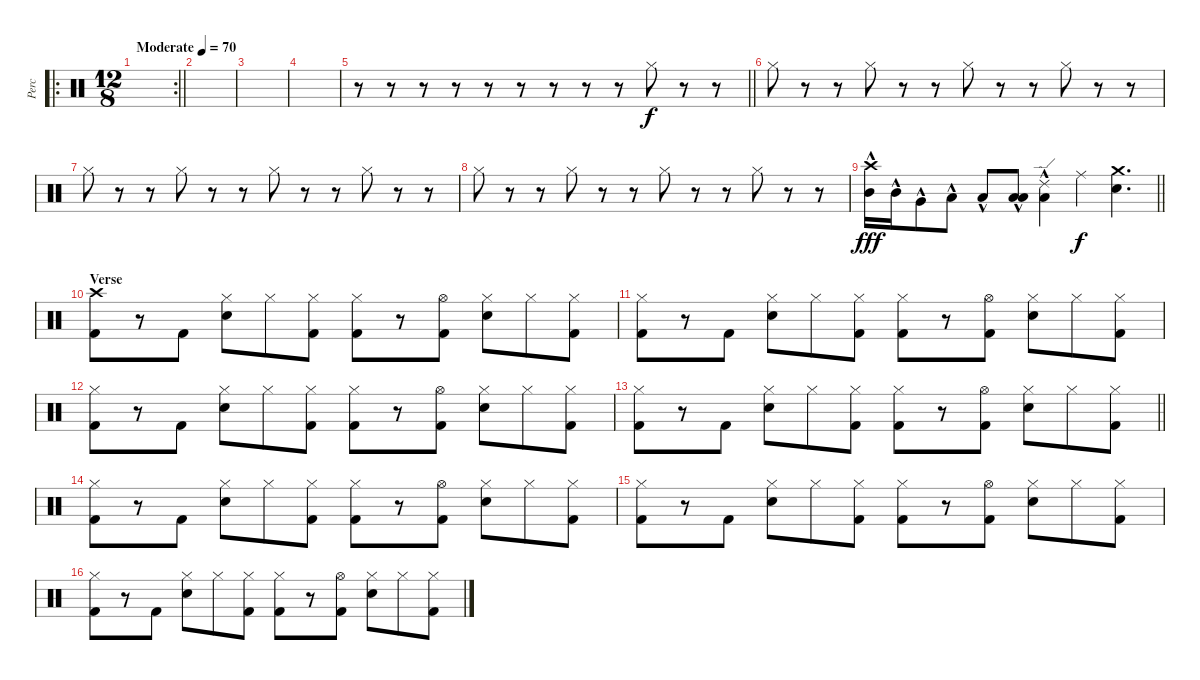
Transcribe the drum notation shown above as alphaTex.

\track ("Perc" "Perc") {instrument percussion}
\staff {score}
\articulation defaults
\ro
\rc 2
\ts (12 8)
\tempo (70 "Moderate")
\clef neutral
\barLineRight lightlight
\ks c
|
|
|
|
\barLineRight lightlight
r.8 r.8 r.8 r.8 r.8 r.8 r.8 r.8 r.8 "Hi-Hat (closed)".8 r.8 r.8 |
"Hi-Hat (closed)".8 r.8 r.8 "Hi-Hat (closed)".8 r.8 r.8 "Hi-Hat (closed)".8 r.8 r.8 "Hi-Hat (closed)".8 r.8 r.8 |
"Hi-Hat (closed)".8 r.8 r.8 "Hi-Hat (closed)".8 r.8 r.8 "Hi-Hat (closed)".8 r.8 r.8 "Hi-Hat (closed)".8 r.8 r.8 |
"Hi-Hat (closed)".8 r.8 r.8 "Hi-Hat (closed)".8 r.8 r.8 "Hi-Hat (closed)".8 r.8 r.8 "Hi-Hat (closed)".8 r.8 r.8 |
\barLineRight lightlight
("Mid Tom (hit)"{hac} "Crash high (hit)").16{dy fff} "Mid Tom (hit)"{hac}.16 "Very Low Tom (hit)"{hac}.8 "Low Floor Tom (hit)"{hac}.8 "Low Floor Tom (hit)"{hac}.8 ("Low Floor Tom (hit)"{hac} "Low Floor Tom (hit)").8 ("Low Floor Tom (hit)"{hac} "Ride (edge) 2").4 "Ride (middle)".4{dy f} ("Electric Snare (hit)" "Crash medium (hit)").4{d} |
\section ("" "Verse")
("Crash high (hit)" "Kick (hit) 2").8 r.8 "Kick (hit) 2".8 ("Hi-Hat (closed)" "Electric Snare (hit)").8 "Hi-Hat (closed)".8 ("Hi-Hat (closed)" "Kick (hit) 2").8 ("Hi-Hat (closed)" "Kick (hit) 2").8 r.8 ("Hi-Hat (open)" "Kick (hit) 2").8 ("Hi-Hat (closed)" "Electric Snare (hit)").8 "Hi-Hat (closed)".8 ("Hi-Hat (closed)" "Kick (hit) 2").8 |
("Kick (hit) 2" "Hi-Hat (closed)").8 r.8 "Kick (hit) 2".8 ("Hi-Hat (closed)" "Electric Snare (hit)").8 "Hi-Hat (closed)".8 ("Hi-Hat (closed)" "Kick (hit) 2").8 ("Hi-Hat (closed)" "Kick (hit) 2").8 r.8 ("Hi-Hat (open)" "Kick (hit) 2").8 ("Hi-Hat (closed)" "Electric Snare (hit)").8 "Hi-Hat (closed)".8 ("Hi-Hat (closed)" "Kick (hit) 2").8 |
("Kick (hit) 2" "Hi-Hat (closed)").8 r.8 "Kick (hit) 2".8 ("Hi-Hat (closed)" "Electric Snare (hit)").8 "Hi-Hat (closed)".8 ("Hi-Hat (closed)" "Kick (hit) 2").8 ("Hi-Hat (closed)" "Kick (hit) 2").8 r.8 ("Hi-Hat (open)" "Kick (hit) 2").8 ("Hi-Hat (closed)" "Electric Snare (hit)").8 "Hi-Hat (closed)".8 ("Hi-Hat (closed)" "Kick (hit) 2").8 |
\barLineRight lightlight
("Kick (hit) 2" "Hi-Hat (closed)").8 r.8 "Kick (hit) 2".8 ("Hi-Hat (closed)" "Electric Snare (hit)").8 "Hi-Hat (closed)".8 ("Hi-Hat (closed)" "Kick (hit) 2").8 ("Hi-Hat (closed)" "Kick (hit) 2").8 r.8 ("Hi-Hat (open)" "Kick (hit) 2").8 ("Hi-Hat (closed)" "Electric Snare (hit)").8 "Hi-Hat (closed)".8 ("Hi-Hat (closed)" "Kick (hit) 2").8 |
\section ("" "")
("Kick (hit) 2" "Hi-Hat (closed)").8 r.8 "Kick (hit) 2".8 ("Hi-Hat (closed)" "Electric Snare (hit)").8 "Hi-Hat (closed)".8 ("Hi-Hat (closed)" "Kick (hit) 2").8 ("Hi-Hat (closed)" "Kick (hit) 2").8 r.8 ("Hi-Hat (open)" "Kick (hit) 2").8 ("Hi-Hat (closed)" "Electric Snare (hit)").8 "Hi-Hat (closed)".8 ("Hi-Hat (closed)" "Kick (hit) 2").8 |
("Kick (hit) 2" "Hi-Hat (closed)").8 r.8 "Kick (hit) 2".8 ("Hi-Hat (closed)" "Electric Snare (hit)").8 "Hi-Hat (closed)".8 ("Hi-Hat (closed)" "Kick (hit) 2").8 ("Hi-Hat (closed)" "Kick (hit) 2").8 r.8 ("Hi-Hat (open)" "Kick (hit) 2").8 ("Hi-Hat (closed)" "Electric Snare (hit)").8 "Hi-Hat (closed)".8 ("Hi-Hat (closed)" "Kick (hit) 2").8 |
("Kick (hit) 2" "Hi-Hat (closed)").8 r.8 "Kick (hit) 2".8 ("Hi-Hat (closed)" "Electric Snare (hit)").8 "Hi-Hat (closed)".8 ("Hi-Hat (closed)" "Kick (hit) 2").8 ("Hi-Hat (closed)" "Kick (hit) 2").8 r.8 ("Hi-Hat (open)" "Kick (hit) 2").8 ("Hi-Hat (closed)" "Electric Snare (hit)").8 "Hi-Hat (closed)".8 ("Hi-Hat (closed)" "Kick (hit) 2").8
